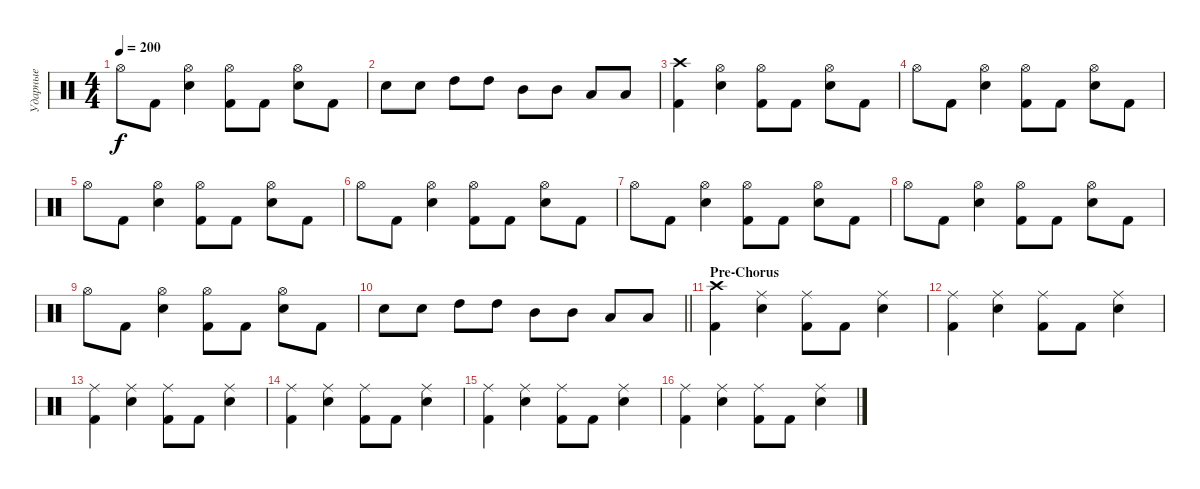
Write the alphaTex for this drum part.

\track ("Ударные" "Ударные") {instrument percussion}
\staff {score}
\articulation defaults
\ts (4 4)
\tempo 200
\clef neutral
\ks c "Hi-Hat (open)".8{dy f} "Kick (hit) 2".8
("Hi-Hat (open)" "Electric Snare (hit)").4 ("Hi-Hat (open)" "Kick (hit) 2").8 "Kick (hit) 2".8 ("Hi-Hat (open)" "Electric Snare (hit)").8 "Kick (hit) 2".8 |
"Electric Snare (hit)".8 "Electric Snare (hit)".8 "High Tom (hit)".8 "High Tom (hit)".8 "Mid Tom (hit)".8 "Mid Tom (hit)".8 "Low Tom (hit)".8 "Low Tom (hit)".8 |
("Crash high (hit)" "Kick (hit) 2").4 ("Hi-Hat (open)" "Electric Snare (hit)").4 ("Hi-Hat (open)" "Kick (hit) 2").8 "Kick (hit) 2".8 ("Hi-Hat (open)" "Electric Snare (hit)").8 "Kick (hit) 2".8 |
"Hi-Hat (open)".8 "Kick (hit) 2".8 ("Hi-Hat (open)" "Electric Snare (hit)").4 ("Hi-Hat (open)" "Kick (hit) 2").8 "Kick (hit) 2".8 ("Hi-Hat (open)" "Electric Snare (hit)").8 "Kick (hit) 2".8 |
"Hi-Hat (open)".8 "Kick (hit) 2".8 ("Hi-Hat (open)" "Electric Snare (hit)").4 ("Hi-Hat (open)" "Kick (hit) 2").8 "Kick (hit) 2".8 ("Hi-Hat (open)" "Electric Snare (hit)").8 "Kick (hit) 2".8 |
"Hi-Hat (open)".8 "Kick (hit) 2".8 ("Hi-Hat (open)" "Electric Snare (hit)").4 ("Hi-Hat (open)" "Kick (hit) 2").8 "Kick (hit) 2".8 ("Hi-Hat (open)" "Electric Snare (hit)").8 "Kick (hit) 2".8 |
"Hi-Hat (open)".8 "Kick (hit) 2".8 ("Hi-Hat (open)" "Electric Snare (hit)").4 ("Hi-Hat (open)" "Kick (hit) 2").8 "Kick (hit) 2".8 ("Hi-Hat (open)" "Electric Snare (hit)").8 "Kick (hit) 2".8 |
"Hi-Hat (open)".8 "Kick (hit) 2".8 ("Hi-Hat (open)" "Electric Snare (hit)").4 ("Hi-Hat (open)" "Kick (hit) 2").8 "Kick (hit) 2".8 ("Hi-Hat (open)" "Electric Snare (hit)").8 "Kick (hit) 2".8 |
"Hi-Hat (open)".8 "Kick (hit) 2".8 ("Hi-Hat (open)" "Electric Snare (hit)").4 ("Hi-Hat (open)" "Kick (hit) 2").8 "Kick (hit) 2".8 ("Hi-Hat (open)" "Electric Snare (hit)").8 "Kick (hit) 2".8 |
\barLineRight lightlight "Electric Snare (hit)".8 "Electric Snare (hit)".8 "High Tom (hit)".8 "High Tom (hit)".8 "Mid Tom (hit)".8 "Mid Tom (hit)".8 "Low Tom (hit)".8 "Low Tom (hit)".8
|
\section ("" "Pre-Chorus")
("Crash high (hit)" "Kick (hit) 2").4 ("Ride (middle)" "Electric Snare (hit)").4 ("Ride (middle)" "Kick (hit) 2").8 "Kick (hit) 2".8 ("Ride (middle)" "Electric Snare (hit)").4 |
("Ride (middle)" "Kick (hit) 2").4 ("Ride (middle)" "Electric Snare (hit)").4 ("Ride (middle)" "Kick (hit) 2").8 "Kick (hit) 2".8 ("Ride (middle)" "Electric Snare (hit)").4 |
("Ride (middle)" "Kick (hit) 2").4 ("Ride (middle)" "Electric Snare (hit)").4 ("Ride (middle)" "Kick (hit) 2").8 "Kick (hit) 2".8 ("Ride (middle)" "Electric Snare (hit)").4 |
("Ride (middle)" "Kick (hit) 2").4 ("Ride (middle)" "Electric Snare (hit)").4 ("Ride (middle)" "Kick (hit) 2").8 "Kick (hit) 2".8 ("Ride (middle)" "Electric Snare (hit)").4 |
("Ride (middle)" "Kick (hit) 2").4 ("Ride (middle)" "Electric Snare (hit)").4 ("Ride (middle)" "Kick (hit) 2").8 "Kick (hit) 2".8 ("Ride (middle)" "Electric Snare (hit)").4 |
("Ride (middle)" "Kick (hit) 2").4 ("Ride (middle)" "Electric Snare (hit)").4 ("Ride (middle)" "Kick (hit) 2").8 "Kick (hit) 2".8 ("Ride (middle)" "Electric Snare (hit)").4
